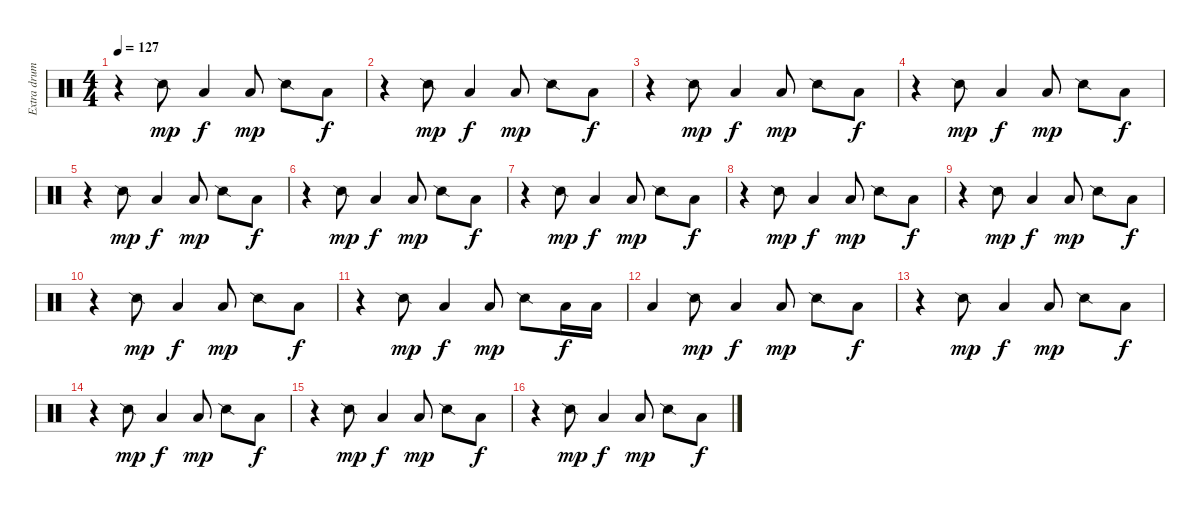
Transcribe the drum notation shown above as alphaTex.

\track ("Extra drums" "Extra drum") {instrument percussion}
\staff {score}
\articulation defaults
\ts (4 4)
\tempo 127
\clef neutral
\ks c
r.4{dy f} "Snare (side stick) 2".8{dy mp} "Low Tom (hit)".4{dy f} "Low Tom (hit)".8{dy mp} "Snare (side stick) 2".8 "Low Tom (hit)".8{dy f} |
r.4 "Snare (side stick) 2".8{dy mp} "Low Tom (hit)".4{dy f} "Low Tom (hit)".8{dy mp} "Snare (side stick) 2".8 "Low Tom (hit)".8{dy f} |
r.4 "Snare (side stick) 2".8{dy mp} "Low Tom (hit)".4{dy f} "Low Tom (hit)".8{dy mp} "Snare (side stick) 2".8 "Low Tom (hit)".8{dy f} |
r.4 "Snare (side stick) 2".8{dy mp} "Low Tom (hit)".4{dy f} "Low Tom (hit)".8{dy mp} "Snare (side stick) 2".8 "Low Tom (hit)".8{dy f} |
r.4 "Snare (side stick) 2".8{dy mp} "Low Tom (hit)".4{dy f} "Low Tom (hit)".8{dy mp} "Snare (side stick) 2".8 "Low Tom (hit)".8{dy f} |
r.4 "Snare (side stick) 2".8{dy mp} "Low Tom (hit)".4{dy f} "Low Tom (hit)".8{dy mp} "Snare (side stick) 2".8 "Low Tom (hit)".8{dy f} |
r.4 "Snare (side stick) 2".8{dy mp} "Low Tom (hit)".4{dy f} "Low Tom (hit)".8{dy mp} "Snare (side stick) 2".8 "Low Tom (hit)".8{dy f} |
r.4 "Snare (side stick) 2".8{dy mp} "Low Tom (hit)".4{dy f} "Low Tom (hit)".8{dy mp} "Snare (side stick) 2".8 "Low Tom (hit)".8{dy f} |
r.4 "Snare (side stick) 2".8{dy mp} "Low Tom (hit)".4{dy f} "Low Tom (hit)".8{dy mp} "Snare (side stick) 2".8 "Low Tom (hit)".8{dy f} |
r.4 "Snare (side stick) 2".8{dy mp} "Low Tom (hit)".4{dy f} "Low Tom (hit)".8{dy mp} "Snare (side stick) 2".8 "Low Tom (hit)".8{dy f} |
r.4 "Snare (side stick) 2".8{dy mp} "Low Tom (hit)".4{dy f} "Low Tom (hit)".8{dy mp} "Snare (side stick) 2".8 "Low Tom (hit)".16{dy f} "Low Tom (hit)".16 |
"Low Tom (hit)".4 "Snare (side stick) 2".8{dy mp} "Low Tom (hit)".4{dy f} "Low Tom (hit)".8{dy mp} "Snare (side stick) 2".8 "Low Tom (hit)".8{dy f} |
r.4 "Snare (side stick) 2".8{dy mp} "Low Tom (hit)".4{dy f} "Low Tom (hit)".8{dy mp} "Snare (side stick) 2".8 "Low Tom (hit)".8{dy f} |
r.4 "Snare (side stick) 2".8{dy mp} "Low Tom (hit)".4{dy f} "Low Tom (hit)".8{dy mp} "Snare (side stick) 2".8 "Low Tom (hit)".8{dy f} |
r.4 "Snare (side stick) 2".8{dy mp} "Low Tom (hit)".4{dy f} "Low Tom (hit)".8{dy mp} "Snare (side stick) 2".8 "Low Tom (hit)".8{dy f} |
r.4 "Snare (side stick) 2".8{dy mp} "Low Tom (hit)".4{dy f} "Low Tom (hit)".8{dy mp} "Snare (side stick) 2".8 "Low Tom (hit)".8{dy f}
